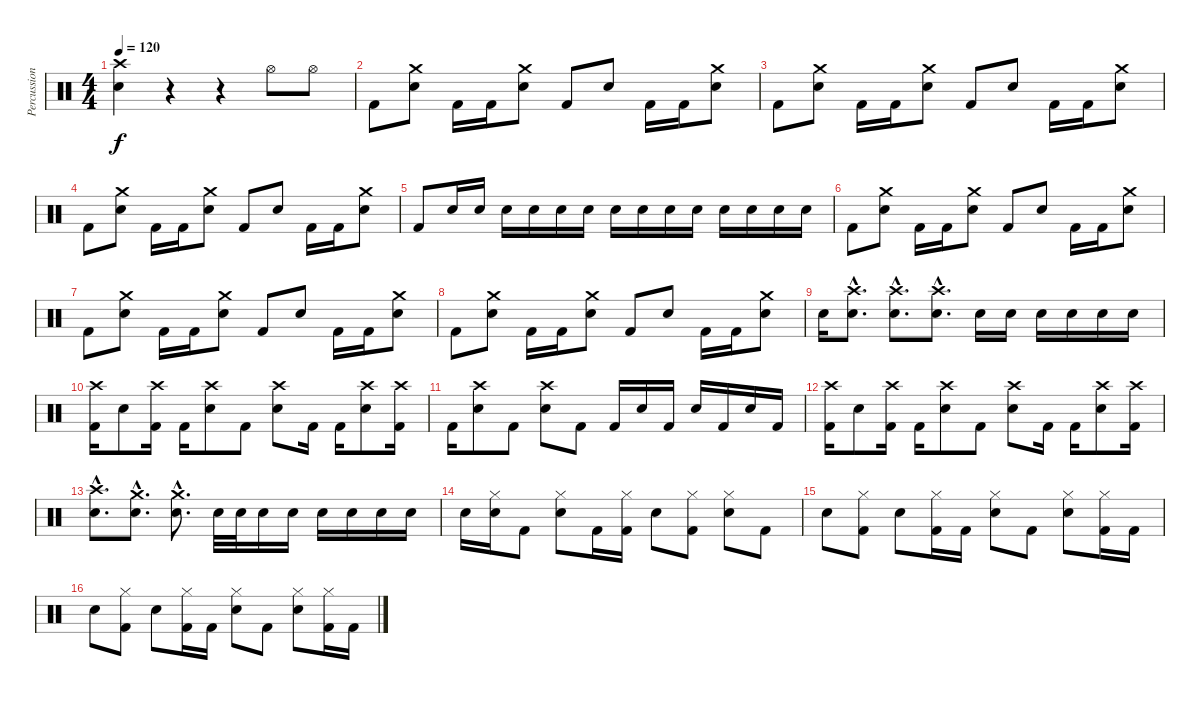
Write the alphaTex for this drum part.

\track ("Percussions" "Percussion") {instrument percussion}
\staff {score}
\articulation defaults
\ts (4 4)
\tempo 120
\clef neutral
\ks c
("Snare (hit) 2" "Crash high (hit)").4{dy f} r.4 r.4 "Hi-Hat (open)".8 "Hi-Hat (open)".8 |
"Kick (hit) 2".8 ("Crash medium (hit)" "Snare (hit) 2").8 "Kick (hit) 2".16 "Kick (hit) 2".16 ("Crash medium (hit)" "Snare (hit) 2").8 "Kick (hit) 2".8 "Snare (hit) 2".8 "Kick (hit) 2".16 "Kick (hit) 2".16 ("Crash medium (hit)" "Snare (hit) 2").8 |
"Kick (hit) 2".8 ("Crash medium (hit)" "Snare (hit) 2").8 "Kick (hit) 2".16 "Kick (hit) 2".16 ("Crash medium (hit)" "Snare (hit) 2").8 "Kick (hit) 2".8 "Snare (hit) 2".8 "Kick (hit) 2".16 "Kick (hit) 2".16 ("Crash medium (hit)" "Snare (hit) 2").8 |
"Kick (hit) 2".8 ("Crash medium (hit)" "Snare (hit) 2").8 "Kick (hit) 2".16 "Kick (hit) 2".16 ("Crash medium (hit)" "Snare (hit) 2").8 "Kick (hit) 2".8 "Snare (hit) 2".8 "Kick (hit) 2".16 "Kick (hit) 2".16 ("Crash medium (hit)" "Snare (hit) 2").8 |
"Kick (hit) 2".8 "Snare (hit) 2".16 "Snare (hit) 2".16 "Snare (hit) 2".16 "Snare (hit) 2".16 "Snare (hit) 2".16 "Snare (hit) 2".16 "Snare (hit) 2".16 "Snare (hit) 2".16 "Snare (hit) 2".16 "Snare (hit) 2".16 "Snare (hit) 2".16 "Snare (hit) 2".16 "Snare (hit) 2".16 "Snare (hit) 2".16 |
"Kick (hit) 2".8 ("Crash medium (hit)" "Snare (hit) 2").8 "Kick (hit) 2".16 "Kick (hit) 2".16 ("Crash medium (hit)" "Snare (hit) 2").8 "Kick (hit) 2".8 "Snare (hit) 2".8 "Kick (hit) 2".16 "Kick (hit) 2".16 ("Crash medium (hit)" "Snare (hit) 2").8 |
"Kick (hit) 2".8 ("Crash medium (hit)" "Snare (hit) 2").8 "Kick (hit) 2".16 "Kick (hit) 2".16 ("Crash medium (hit)" "Snare (hit) 2").8 "Kick (hit) 2".8 "Snare (hit) 2".8 "Kick (hit) 2".16 "Kick (hit) 2".16 ("Crash medium (hit)" "Snare (hit) 2").8 |
"Kick (hit) 2".8 ("Crash medium (hit)" "Snare (hit) 2").8 "Kick (hit) 2".16 "Kick (hit) 2".16 ("Crash medium (hit)" "Snare (hit) 2").8 "Kick (hit) 2".8 "Snare (hit) 2".8 "Kick (hit) 2".16 "Kick (hit) 2".16 ("Crash medium (hit)" "Snare (hit) 2").8 |
"Snare (hit) 2".16 ("Crash high (hit)"{hac} "Snare (hit) 2"{hac}).8{d} ("Crash high (hit)"{hac} "Snare (hit) 2"{hac}).8{d} ("Crash high (hit)"{hac} "Snare (hit) 2"{hac}).8{d} "Snare (hit) 2".16 "Snare (hit) 2".16 "Snare (hit) 2".16 "Snare (hit) 2".16 "Snare (hit) 2".16 "Snare (hit) 2".16 |
("Kick (hit) 2" "Crash high (hit)").16 "Snare (hit) 2".8 ("Kick (hit) 2" "Crash high (hit)").16 "Kick (hit) 2".16 ("Snare (hit) 2" "Crash high (hit)").8 "Kick (hit) 2".8 ("Snare (hit) 2" "Crash high (hit)").8 "Kick (hit) 2".16 "Kick (hit) 2".16 ("Snare (hit) 2" "Crash high (hit)").8 ("Kick (hit) 2" "Crash high (hit)").16 |
"Kick (hit) 2".16 ("Snare (hit) 2" "Crash high (hit)").8 "Kick (hit) 2".8 ("Snare (hit) 2" "Crash high (hit)").8 "Kick (hit) 2".8 "Kick (hit) 2".16 "Snare (hit) 2".16 "Kick (hit) 2".16 "Snare (hit) 2".16 "Kick (hit) 2".16 "Snare (hit) 2".16 "Kick (hit) 2".16 |
("Kick (hit) 2" "Crash high (hit)").16 "Snare (hit) 2".8 ("Kick (hit) 2" "Crash high (hit)").16 "Kick (hit) 2".16 ("Snare (hit) 2" "Crash high (hit)").8 "Kick (hit) 2".8 ("Snare (hit) 2" "Crash high (hit)").8 "Kick (hit) 2".16 "Kick (hit) 2".16 ("Snare (hit) 2" "Crash high (hit)").8 ("Kick (hit) 2" "Crash high (hit)").16 |
("Snare (hit) 2"{hac} "Crash high (hit)"{hac}).8{d} ("Snare (hit) 2"{hac} "Crash medium (hit)"{hac}).8{d} ("Snare (hit) 2"{hac} "Crash medium (hit)"{hac}).8{d} "Snare (hit) 2".32 "Snare (hit) 2".32 "Snare (hit) 2".16 "Snare (hit) 2".16 "Snare (hit) 2".16 "Snare (hit) 2".16 "Snare (hit) 2".16 "Snare (hit) 2".16 |
"Snare (hit) 2".16 ("Hi-Hat (closed)" "Snare (hit) 2").16 "Kick (hit) 2".8 ("Hi-Hat (closed)" "Snare (hit) 2").8 "Kick (hit) 2".16 ("Hi-Hat (closed)" "Kick (hit) 2").16 "Snare (hit) 2".8 ("Hi-Hat (closed)" "Kick (hit) 2").8 ("Hi-Hat (closed)" "Snare (hit) 2").8 "Kick (hit) 2".8 |
"Snare (hit) 2".8 ("Hi-Hat (closed)" "Kick (hit) 2").8 "Snare (hit) 2".8 ("Hi-Hat (closed)" "Kick (hit) 2").16 "Kick (hit) 2".16 ("Hi-Hat (closed)" "Snare (hit) 2").8 "Kick (hit) 2".8 ("Hi-Hat (closed)" "Snare (hit) 2").8 ("Hi-Hat (closed)" "Kick (hit) 2").16 "Kick (hit) 2".16 |
"Snare (hit) 2".8 ("Hi-Hat (closed)" "Kick (hit) 2").8 "Snare (hit) 2".8 ("Hi-Hat (closed)" "Kick (hit) 2").16 "Kick (hit) 2".16 ("Hi-Hat (closed)" "Snare (hit) 2").8 "Kick (hit) 2".8 ("Hi-Hat (closed)" "Snare (hit) 2").8 ("Hi-Hat (closed)" "Kick (hit) 2").16 "Kick (hit) 2".16
